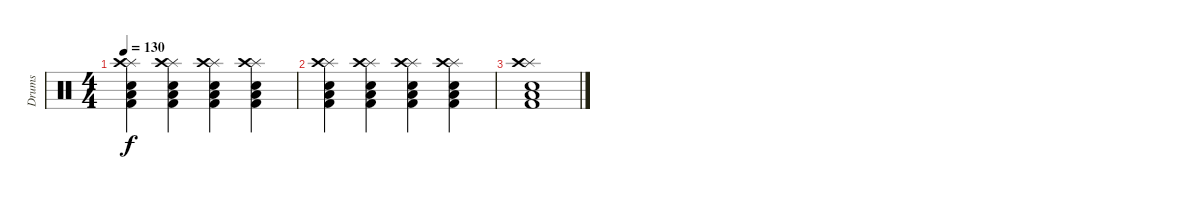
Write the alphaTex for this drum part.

\track ("Drums" "Drums") {instrument percussion}
\staff {score}
\articulation defaults
\ts (4 4)
\tempo 130
\clef neutral
\ks c
("Splash (hit)" "Low Tom (hit)" "Crash high (hit)" "Snare (hit) 2" "Kick (hit) 2").4{dy f} ("Splash (hit)" "Low Tom (hit)" "Crash high (hit)" "Snare (hit) 2" "Kick (hit) 2").4 ("Splash (hit)" "Low Tom (hit)" "Crash high (hit)" "Snare (hit) 2" "Kick (hit) 2").4 ("Splash (hit)" "Low Tom (hit)" "Crash high (hit)" "Snare (hit) 2" "Kick (hit) 2").4 |
("Splash (hit)" "Low Tom (hit)" "Crash high (hit)" "Snare (hit) 2" "Kick (hit) 2").4 ("Splash (hit)" "Low Tom (hit)" "Crash high (hit)" "Snare (hit) 2" "Kick (hit) 2").4 ("Splash (hit)" "Low Tom (hit)" "Crash high (hit)" "Snare (hit) 2" "Kick (hit) 2").4 ("Splash (hit)" "Low Tom (hit)" "Crash high (hit)" "Snare (hit) 2" "Kick (hit) 2").4 |
("Splash (hit)" "Low Tom (hit)" "Crash high (hit)" "Snare (hit) 2" "Kick (hit) 2").1
